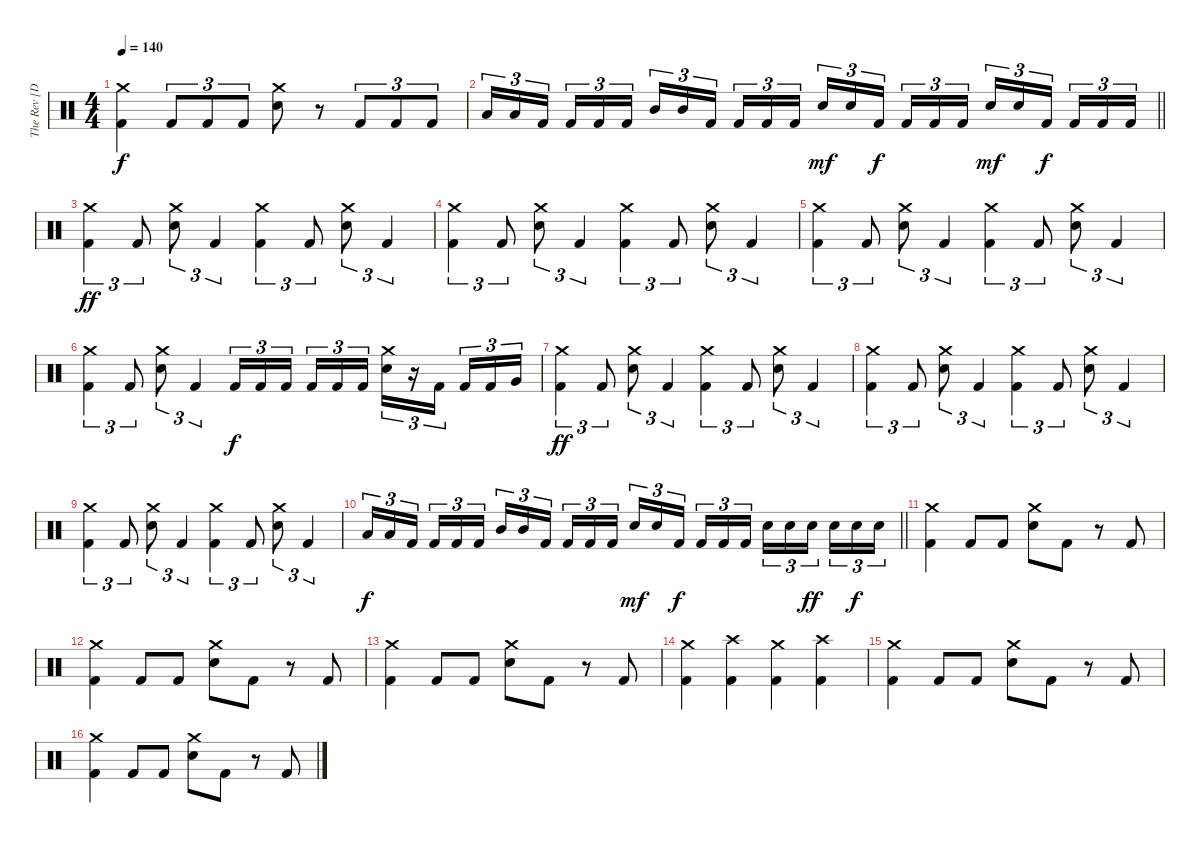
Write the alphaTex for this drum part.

\track ("The Rev [Drum]" "The Rev [D") {instrument percussion}
\staff {score}
\articulation defaults
\ts (4 4)
\tempo 140
\clef neutral
\ks c
("Crash medium (hit)" "Kick (hit) 2").4{dy f} "Kick (hit) 2".8{tu (3 2)} "Kick (hit) 2".8{tu (3 2)} "Kick (hit) 2".8{tu (3 2)} ("Crash medium (hit)" "Snare (hit) 2").8 r.8 "Kick (hit) 2".8{tu (3 2)} "Kick (hit) 2".8{tu (3 2)} "Kick (hit) 2".8{tu (3 2)} |
\barLineRight lightlight "Low Tom (hit)".16{tu (3 2)} "Low Tom (hit)".16{tu (3 2)} "Kick (hit) 2".16{tu (3 2) beam splitsecondary} "Kick (hit) 2".16{tu (3 2)} "Kick (hit) 2".16{tu (3 2)} "Kick (hit) 2".16{tu (3 2)} "Mid Tom (hit)".16{tu (3 2)} "Mid Tom (hit)".16{tu (3 2)} "Kick (hit) 2".16{tu (3 2) beam splitsecondary} "Kick (hit) 2".16{tu (3 2)} "Kick (hit) 2".16{tu (3 2)} "Kick (hit) 2".16{tu (3 2)} "Snare (hit) 2".16{tu (3 2) dy mf} "Snare (hit) 2".16{tu (3 2)} "Kick (hit) 2".16{tu (3 2) dy f beam splitsecondary} "Kick (hit) 2".16{tu (3 2)} "Kick (hit) 2".16{tu (3 2)} "Kick (hit) 2".16{tu (3 2)} "Snare (hit) 2".16{tu (3 2) dy mf} "Snare (hit) 2".16{tu (3 2)} "Kick (hit) 2".16{tu (3 2) dy f beam splitsecondary} "Kick (hit) 2".16{tu (3 2)} "Kick (hit) 2".16{tu (3 2)} "Kick (hit) 2".16{tu (3 2)}
|
("Crash medium (hit)" "Kick (hit) 2").4{tu (3 2) dy ff} "Kick (hit) 2".8{tu (3 2)} ("Crash medium (hit)" "Snare (hit) 2").8{tu (3 2)} "Kick (hit) 2".4{tu (3 2)} ("Crash medium (hit)" "Kick (hit) 2").4{tu (3 2)} "Kick (hit) 2".8{tu (3 2)} ("Crash medium (hit)" "Snare (hit) 2").8{tu (3 2)} "Kick (hit) 2".4{tu (3 2)} |
("Crash medium (hit)" "Kick (hit) 2").4{tu (3 2)} "Kick (hit) 2".8{tu (3 2)} ("Crash medium (hit)" "Snare (hit) 2").8{tu (3 2)} "Kick (hit) 2".4{tu (3 2)} ("Crash medium (hit)" "Kick (hit) 2").4{tu (3 2)} "Kick (hit) 2".8{tu (3 2)} ("Crash medium (hit)" "Snare (hit) 2").8{tu (3 2)} "Kick (hit) 2".4{tu (3 2)} |
("Crash medium (hit)" "Kick (hit) 2").4{tu (3 2)} "Kick (hit) 2".8{tu (3 2)} ("Crash medium (hit)" "Snare (hit) 2").8{tu (3 2)} "Kick (hit) 2".4{tu (3 2)} ("Crash medium (hit)" "Kick (hit) 2").4{tu (3 2)} "Kick (hit) 2".8{tu (3 2)} ("Crash medium (hit)" "Snare (hit) 2").8{tu (3 2)} "Kick (hit) 2".4{tu (3 2)} |
("Crash medium (hit)" "Kick (hit) 2").4{tu (3 2)} "Kick (hit) 2".8{tu (3 2)} ("Crash medium (hit)" "Snare (hit) 2").8{tu (3 2)} "Kick (hit) 2".4{tu (3 2)} "Kick (hit) 2".16{tu (3 2) dy f} "Kick (hit) 2".16{tu (3 2)} "Kick (hit) 2".16{tu (3 2) beam splitsecondary} "Kick (hit) 2".16{tu (3 2)} "Kick (hit) 2".16{tu (3 2)} "Kick (hit) 2".16{tu (3 2)} ("Crash medium (hit)" "Snare (hit) 2").16{tu (3 2)} r.16{tu (3 2)} "Kick (hit) 2".16{tu (3 2) beam splitsecondary} "Kick (hit) 2".16{tu (3 2)} "Kick (hit) 2".16{tu (3 2)} "Very Low Tom (hit)".16{tu (3 2)} |
("Crash medium (hit)" "Kick (hit) 2").4{tu (3 2) dy ff} "Kick (hit) 2".8{tu (3 2)} ("Crash medium (hit)" "Snare (hit) 2").8{tu (3 2)} "Kick (hit) 2".4{tu (3 2)} ("Crash medium (hit)" "Kick (hit) 2").4{tu (3 2)} "Kick (hit) 2".8{tu (3 2)} ("Crash medium (hit)" "Snare (hit) 2").8{tu (3 2)} "Kick (hit) 2".4{tu (3 2)} |
("Crash medium (hit)" "Kick (hit) 2").4{tu (3 2)} "Kick (hit) 2".8{tu (3 2)} ("Crash medium (hit)" "Snare (hit) 2").8{tu (3 2)} "Kick (hit) 2".4{tu (3 2)} ("Crash medium (hit)" "Kick (hit) 2").4{tu (3 2)} "Kick (hit) 2".8{tu (3 2)} ("Crash medium (hit)" "Snare (hit) 2").8{tu (3 2)} "Kick (hit) 2".4{tu (3 2)} |
("Crash medium (hit)" "Kick (hit) 2").4{tu (3 2)} "Kick (hit) 2".8{tu (3 2)} ("Crash medium (hit)" "Snare (hit) 2").8{tu (3 2)} "Kick (hit) 2".4{tu (3 2)} ("Crash medium (hit)" "Kick (hit) 2").4{tu (3 2)} "Kick (hit) 2".8{tu (3 2)} ("Crash medium (hit)" "Snare (hit) 2").8{tu (3 2)} "Kick (hit) 2".4{tu (3 2)} |
\barLineRight lightlight "Low Tom (hit)".16{tu (3 2) dy f} "Low Tom (hit)".16{tu (3 2)} "Kick (hit) 2".16{tu (3 2) beam splitsecondary} "Kick (hit) 2".16{tu (3 2)} "Kick (hit) 2".16{tu (3 2)} "Kick (hit) 2".16{tu (3 2)} "Mid Tom (hit)".16{tu (3 2)} "Mid Tom (hit)".16{tu (3 2)} "Kick (hit) 2".16{tu (3 2) beam splitsecondary} "Kick (hit) 2".16{tu (3 2)} "Kick (hit) 2".16{tu (3 2)} "Kick (hit) 2".16{tu (3 2)} "Snare (hit) 2".16{tu (3 2) dy mf} "Snare (hit) 2".16{tu (3 2)} "Kick (hit) 2".16{tu (3 2) dy f beam splitsecondary} "Kick (hit) 2".16{tu (3 2)} "Kick (hit) 2".16{tu (3 2)} "Kick (hit) 2".16{tu (3 2)} "Snare (hit) 2".16{tu (3 2)} "Snare (hit) 2".16{tu (3 2)} "Snare (hit) 2".16{tu (3 2) dy ff beam splitsecondary} "Snare (hit) 2".16{tu (3 2)} "Snare (hit) 2".16{tu (3 2) dy f} "Snare (hit) 2".16{tu (3 2)}
|
("Crash medium (hit)" "Kick (hit) 2").4 "Kick (hit) 2".8 "Kick (hit) 2".8 ("Crash medium (hit)" "Snare (hit) 2").8 "Kick (hit) 2".8 r.8 "Kick (hit) 2".8 |
("Crash medium (hit)" "Kick (hit) 2").4 "Kick (hit) 2".8 "Kick (hit) 2".8 ("Crash medium (hit)" "Snare (hit) 2").8 "Kick (hit) 2".8 r.8 "Kick (hit) 2".8 |
("Crash medium (hit)" "Kick (hit) 2").4 "Kick (hit) 2".8 "Kick (hit) 2".8 ("Crash medium (hit)" "Snare (hit) 2").8 "Kick (hit) 2".8 r.8 "Kick (hit) 2".8 |
("Crash medium (hit)" "Kick (hit) 2").4 ("Crash high (hit)" "Kick (hit) 2").4 ("Crash medium (hit)" "Kick (hit) 2").4 ("Crash high (hit)" "Kick (hit) 2").4 |
("Crash medium (hit)" "Kick (hit) 2").4 "Kick (hit) 2".8 "Kick (hit) 2".8 ("Crash medium (hit)" "Snare (hit) 2").8 "Kick (hit) 2".8 r.8 "Kick (hit) 2".8 |
("Crash medium (hit)" "Kick (hit) 2").4 "Kick (hit) 2".8 "Kick (hit) 2".8 ("Crash medium (hit)" "Snare (hit) 2").8 "Kick (hit) 2".8 r.8 "Kick (hit) 2".8
